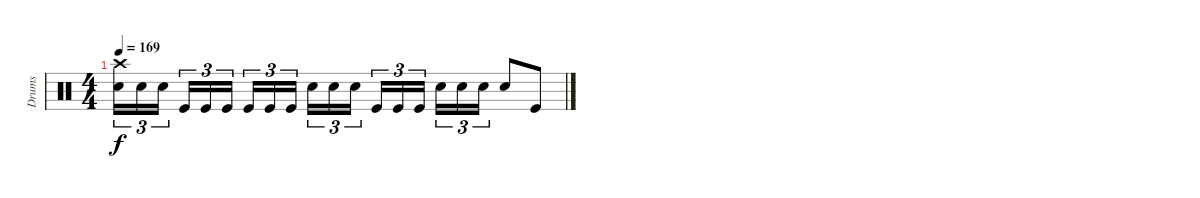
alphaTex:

\track ("Drums" "Drums") {instrument percussion}
\staff
\articulation defaults
\ts (4 4)
\tempo 169
\clef neutral
\ks c
("Crash high (hit)" "Electric Snare (hit)").16{tu (3 2) dy f} "Electric Snare (hit)".16{tu (3 2)} "Electric Snare (hit)".16{tu (3 2) beam splitsecondary} "Kick (hit)".16{tu (3 2)} "Kick (hit)".16{tu (3 2)} "Kick (hit)".16{tu (3 2)} "Kick (hit)".16{tu (3 2)} "Kick (hit)".16{tu (3 2)} "Kick (hit)".16{tu (3 2) beam splitsecondary} "Electric Snare (hit)".16{tu (3 2)} "Electric Snare (hit)".16{tu (3 2)} "Electric Snare (hit)".16{tu (3 2)} "Kick (hit)".16{tu (3 2)} "Kick (hit)".16{tu (3 2)} "Kick (hit)".16{tu (3 2) beam splitsecondary} "Electric Snare (hit)".16{tu (3 2)} "Electric Snare (hit)".16{tu (3 2)} "Electric Snare (hit)".16{tu (3 2)} "Electric Snare (hit)".8 "Kick (hit)".8
